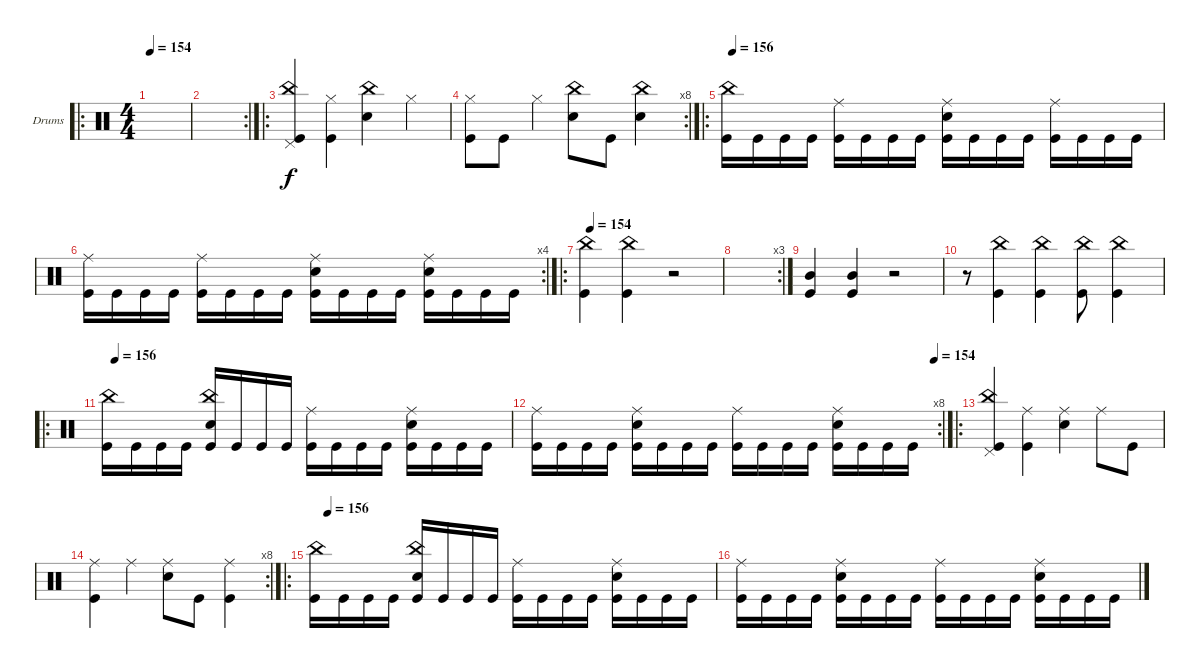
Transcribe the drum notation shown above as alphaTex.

\bracketExtendMode groupsimilarinstruments
\firstSystemTrackNameOrientation horizontal
\otherSystemsTrackNameOrientation horizontal
\track ("Drumkit" "Drums") {instrument percussion}
\staff {score}
\articulation defaults
\ro
\ts (4 4)
\tempo 154
\clef neutral
\ks c
|
\rc 2
|
\ro
("Kick (hit)" "China (hit)" "Pedal Hi-Hat (hit)").4 ("Kick (hit)" "Hi-Hat (closed)").4 ("Snare (hit) 2" "China (hit)").4 "Hi-Hat (closed)".4 |
\rc 8
("Kick (hit)" "Hi-Hat (closed)").8 "Kick (hit)".8 "Hi-Hat (closed)".4 ("Snare (hit) 2" "China (hit)").8 "Kick (hit)".8 ("Snare (hit) 2" "China (hit)").4 |
\ro
\tempo (156 0.00625)
("Kick (hit)" "China (hit)").16 "Kick (hit)".16 "Kick (hit)".16 "Kick (hit)".16 ("Kick (hit)" "Ride (middle)").16 "Kick (hit)".16 "Kick (hit)".16 "Kick (hit)".16 ("Kick (hit)" "Snare (hit) 2" "Ride (middle)").16 "Kick (hit)".16 "Kick (hit)".16 "Kick (hit)".16 ("Kick (hit)" "Ride (middle)").16 "Kick (hit)".16 "Kick (hit)".16 "Kick (hit)".16 |
\rc 4
("Kick (hit)" "Ride (middle)").16 "Kick (hit)".16 "Kick (hit)".16 "Kick (hit)".16 ("Kick (hit)" "Ride (middle)").16 "Kick (hit)".16 "Kick (hit)".16 "Kick (hit)".16 ("Kick (hit)" "Snare (hit) 2" "Ride (middle)").16 "Kick (hit)".16 "Kick (hit)".16 "Kick (hit)".16 ("Kick (hit)" "Ride (middle)" "Snare (hit) 2").16 "Kick (hit)".16 "Kick (hit)".16 "Kick (hit)".16 |
\ro
\tempo (154 0.01875)
("Kick (hit)" "China (hit)").4 ("Kick (hit)" "China (hit)").4 r.2 |
\rc 3
|
("Kick (hit)" "Mid Tom (hit)").4 ("Kick (hit)" "Mid Tom (hit)").4 r.2 |
r.8 ("Kick (hit)" "China (hit)").4 ("China (hit)" "Kick (hit)").4 ("Kick (hit)" "China (hit)").8 ("China (hit)" "Kick (hit)").4 |
\ro
\tempo (156 0.0125)
("Kick (hit)" "China (hit)").16 "Kick (hit)".16 "Kick (hit)".16 "Kick (hit)".16 ("Kick (hit)" "Snare (hit) 2" "China (hit)").16 "Kick (hit)".16 "Kick (hit)".16 "Kick (hit)".16 ("Kick (hit)" "Ride (middle)").16 "Kick (hit)".16 "Kick (hit)".16 "Kick (hit)".16 ("Kick (hit)" "Ride (middle)" "Snare (hit) 2").16 "Kick (hit)".16 "Kick (hit)".16 "Kick (hit)".16 |
\rc 8
\tempo (154 0.99375)
("Kick (hit)" "Ride (middle)").16 "Kick (hit)".16 "Kick (hit)".16 "Kick (hit)".16 ("Kick (hit)" "Ride (middle)" "Snare (hit) 2").16 "Kick (hit)".16 "Kick (hit)".16 "Kick (hit)".16 ("Kick (hit)" "Ride (middle)").16 "Kick (hit)".16 "Kick (hit)".16 "Kick (hit)".16 ("Kick (hit)" "Ride (middle)" "Snare (hit) 2").16 "Kick (hit)".16 "Kick (hit)".16 "Kick (hit)".16 |
\ro
("Kick (hit)" "China (hit)" "Pedal Hi-Hat (hit)").4 ("Kick (hit)" "Ride (middle)").4 ("Snare (hit) 2" "Ride (middle)").4 "Ride (middle)".8 "Kick (hit)".8 |
\rc 8
("Kick (hit)" "Ride (middle)").4 "Ride (middle)".4 ("Snare (hit) 2" "Ride (middle)").8 "Kick (hit)".8 ("Kick (hit)" "Ride (middle)").4 |
\ro
\tempo (156 0.025)
("Kick (hit)" "China (hit)").16 "Kick (hit)".16 "Kick (hit)".16 "Kick (hit)".16 ("Kick (hit)" "Snare (hit) 2" "China (hit)").16 "Kick (hit)".16 "Kick (hit)".16 "Kick (hit)".16 ("Kick (hit)" "Ride (middle)").16 "Kick (hit)".16 "Kick (hit)".16 "Kick (hit)".16 ("Kick (hit)" "Ride (middle)" "Snare (hit) 2").16 "Kick (hit)".16 "Kick (hit)".16 "Kick (hit)".16 |
("Kick (hit)" "Ride (middle)").16 "Kick (hit)".16 "Kick (hit)".16 "Kick (hit)".16 ("Kick (hit)" "Ride (middle)" "Snare (hit) 2").16 "Kick (hit)".16 "Kick (hit)".16 "Kick (hit)".16 ("Kick (hit)" "Ride (middle)").16 "Kick (hit)".16 "Kick (hit)".16 "Kick (hit)".16 ("Kick (hit)" "Ride (middle)" "Snare (hit) 2").16 "Kick (hit)".16 "Kick (hit)".16 "Kick (hit)".16
